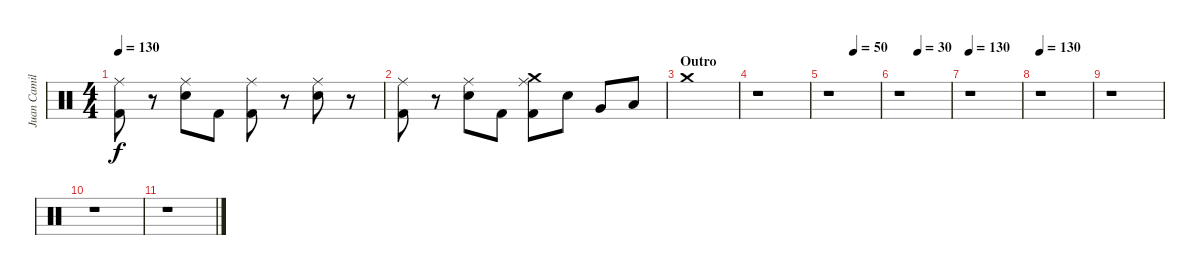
\track ("Juan Camilo" "Juan Camil") {instrument percussion}
\staff {score}
\articulation defaults
\ts (4 4)
\tempo 130
\clef neutral
\ks c
("Ride (middle)" "Kick (hit) 2").8{dy f} r.8 ("Ride (middle)" "Electric Snare (hit)").8 "Kick (hit) 2".8 ("Ride (middle)" "Kick (hit) 2").8 r.8 ("Ride (middle)" "Electric Snare (hit)").8 r.8 |
("Ride (middle)" "Kick (hit) 2").8 r.8 ("Ride (middle)" "Electric Snare (hit)").8 "Kick (hit) 2".8 ("Crash medium (hit)" "Ride (middle)" "Kick (hit) 2").8 "Electric Snare (hit)".8 "Very Low Tom (hit)".8 "Low Floor Tom (hit)".8 |
\section ("" "Outro")
"Crash medium (hit)".1 |
r.1 |
\tempo (50 0.5)
r.1 |
\tempo (30 0.375)
r.1 |
\tempo 130
r.1 |
\tempo 130
r.1 |
r.1 |
r.1 |
r.1
